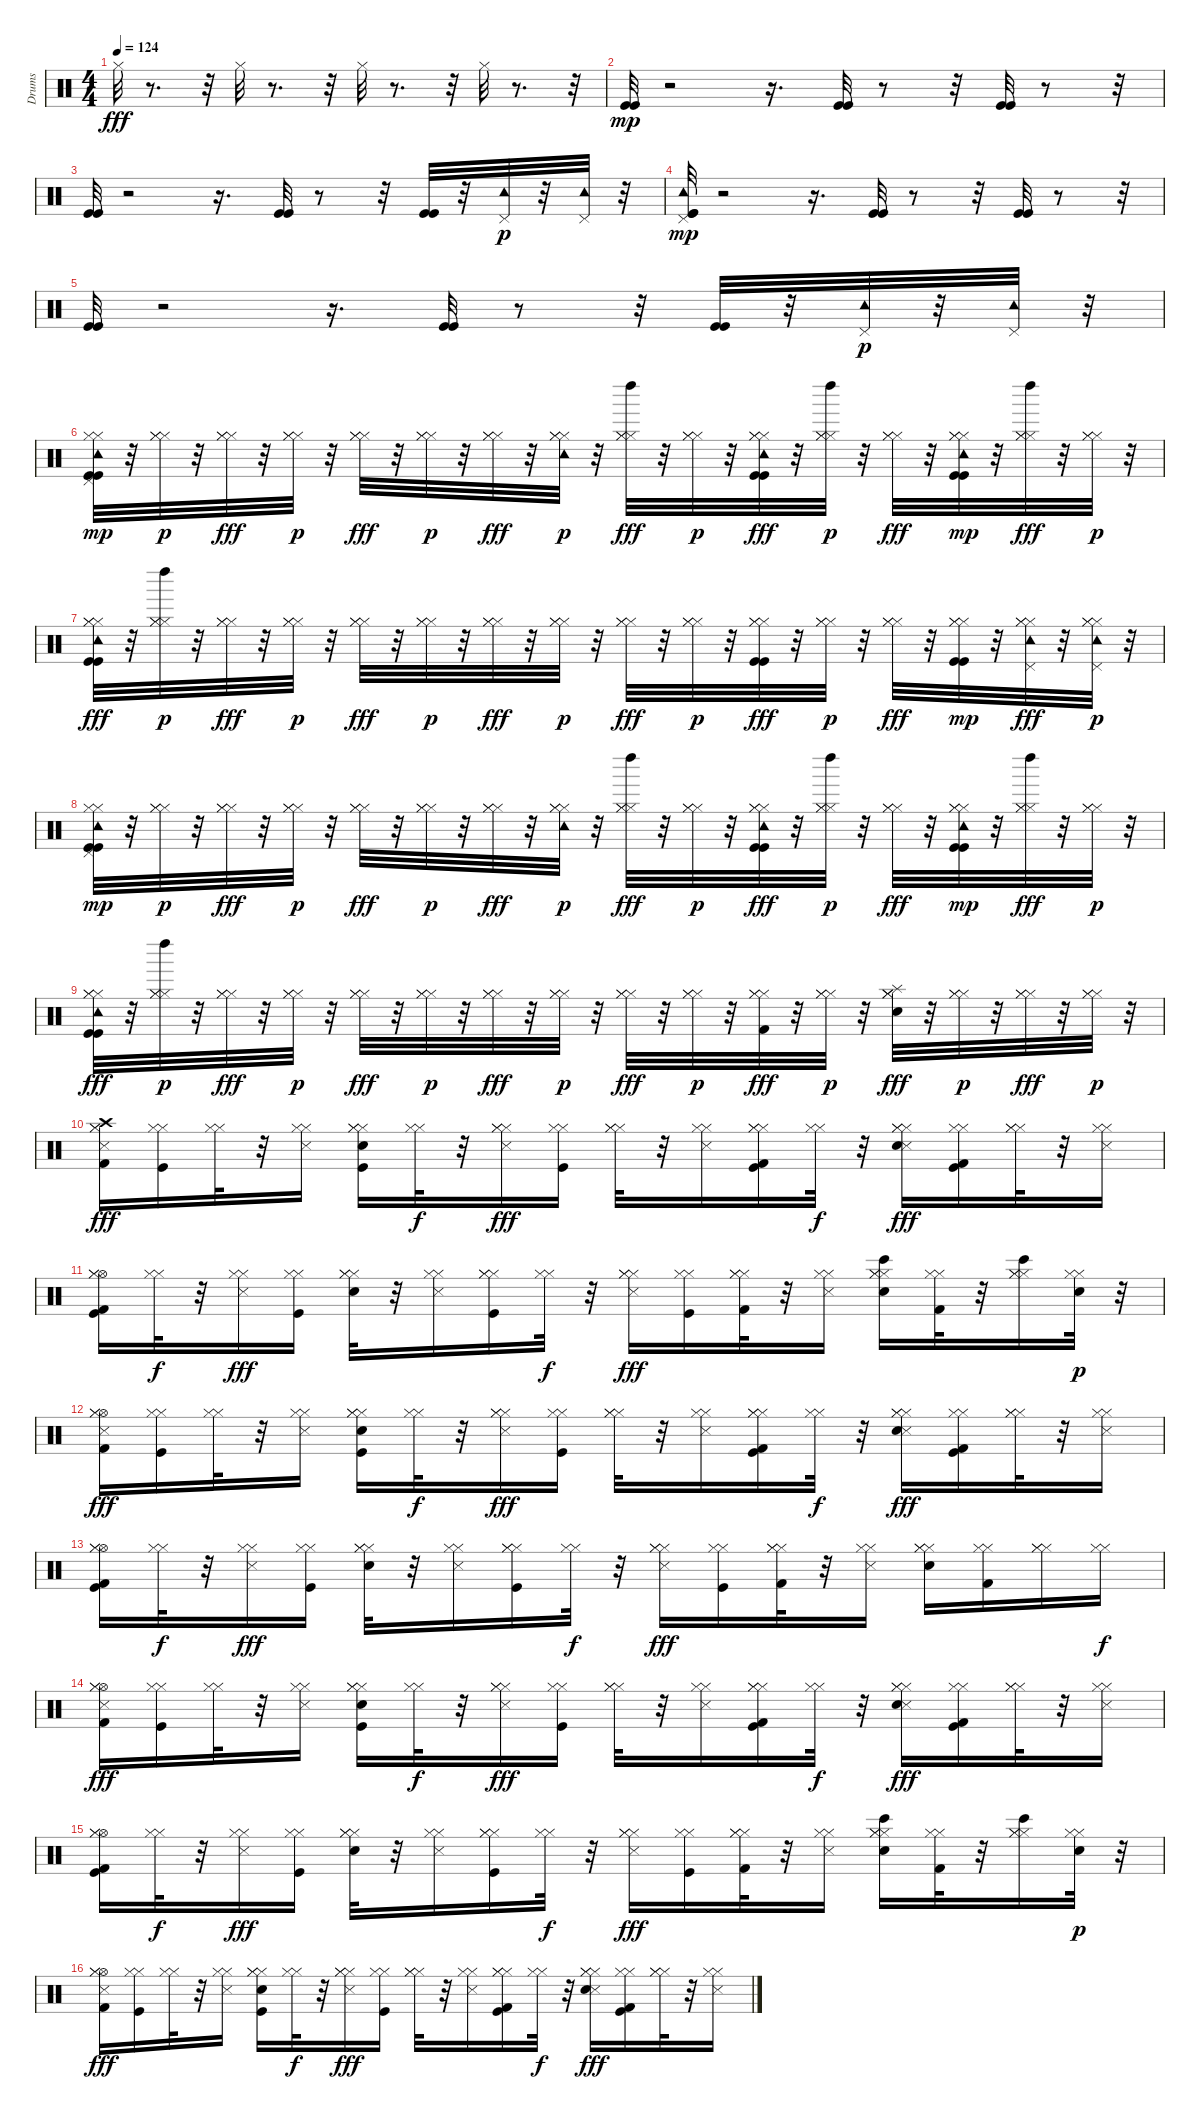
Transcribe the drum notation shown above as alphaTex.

\track ("Drums" "Drums") {instrument percussion}
\staff {score}
\articulation defaults
\ts (4 4)
\tempo 124
\clef neutral
\ks c "Hi-Hat (closed)".32{dy fff}
r.8{d} r.32 "Hi-Hat (closed)".32 r.8{d} r.32 "Hi-Hat (closed)".32 r.8{d} r.32 "Hi-Hat (closed)".32 r.8{d} r.32 |
("Kick (hit)" "Kick (hit)").32{dy mp} r.2 r.16{d} ("Kick (hit)" "Kick (hit)").32 r.8 r.32 ("Kick (hit)" "Kick (hit)").32 r.8 r.32 |
("Kick (hit)" "Kick (hit)").32 r.2 r.16{d} ("Kick (hit)" "Kick (hit)").32 r.8 r.32 ("Kick (hit)" "Kick (hit)").32 r.32 ("Pedal Hi-Hat (hit)" "Tambourine (hit)").32{dy p} r.32 ("Pedal Hi-Hat (hit)" "Tambourine (hit)").32 r.32 |
("Kick (hit)" "Pedal Hi-Hat (hit)" "Tambourine (hit)" "Kick (hit)").32{dy mp} r.2 r.16{d} ("Kick (hit)" "Kick (hit)").32 r.8 r.32 ("Kick (hit)" "Kick (hit)").32 r.8 r.32 |
("Kick (hit)" "Kick (hit)").32 r.2 r.16{d} ("Kick (hit)" "Kick (hit)").32 r.8 r.32 ("Kick (hit)" "Kick (hit)").32 r.32 ("Tambourine (hit)" "Pedal Hi-Hat (hit)").32{dy p} r.32 ("Tambourine (hit)" "Pedal Hi-Hat (hit)").32 r.32 |
("Kick (hit)" "Hi-Hat (closed)" "Tambourine (hit)" "Pedal Hi-Hat (hit)" "Hi-Hat (closed)" "Kick (hit)").32{dy mp} r.32 ("Hi-Hat (closed)" "Hi-Hat (closed)" "Hi-Hat (closed)").32{dy p} r.32 ("Hi-Hat (closed)" "Hi-Hat (closed)" "Hi-Hat (closed)").32{dy fff} r.32 ("Hi-Hat (closed)" "Hi-Hat (closed)" "Hi-Hat (closed)").32{dy p} r.32 ("Hi-Hat (closed)" "Hi-Hat (closed)" "Hi-Hat (closed)").32{dy fff} r.32 ("Hi-Hat (closed)" "Hi-Hat (closed)" "Hi-Hat (closed)").32{dy p} r.32 ("Hi-Hat (closed)" "Hi-Hat (closed)" "Hi-Hat (closed)").32{dy fff} r.32 ("Tambourine (hit)" "Hi-Hat (closed)" "Hi-Hat (closed)" "Hi-Hat (closed)").32{dy p} r.32 ("Left Maraca (hit)" "Hi-Hat (closed)" "Hi-Hat (closed)" "Hi-Hat (closed)").32{dy fff} r.32 ("Hi-Hat (closed)" "Hi-Hat (closed)" "Hi-Hat (closed)").32{dy p} r.32 ("Kick (hit)" "Tambourine (hit)" "Hi-Hat (closed)" "Hi-Hat (closed)" "Kick (hit)" "Hi-Hat (closed)").32{dy fff} r.32 ("Left Maraca (hit)" "Hi-Hat (closed)" "Hi-Hat (closed)" "Hi-Hat (closed)").32{dy p} r.32 ("Hi-Hat (closed)" "Hi-Hat (closed)" "Hi-Hat (closed)").32{dy fff} r.32 ("Kick (hit)" "Tambourine (hit)" "Hi-Hat (closed)" "Hi-Hat (closed)" "Kick (hit)" "Hi-Hat (closed)").32{dy mp} r.32 ("Left Maraca (hit)" "Hi-Hat (closed)" "Hi-Hat (closed)" "Hi-Hat (closed)").32{dy fff} r.32 ("Hi-Hat (closed)" "Hi-Hat (closed)" "Hi-Hat (closed)").32{dy p} r.32 |
("Kick (hit)" "Tambourine (hit)" "Hi-Hat (closed)" "Hi-Hat (closed)" "Kick (hit)" "Hi-Hat (closed)").32{dy fff} r.32 ("Left Maraca (hit)" "Hi-Hat (closed)" "Hi-Hat (closed)" "Hi-Hat (closed)").32{dy p} r.32 ("Hi-Hat (closed)" "Hi-Hat (closed)" "Hi-Hat (closed)").32{dy fff} r.32 ("Hi-Hat (closed)" "Hi-Hat (closed)" "Hi-Hat (closed)").32{dy p} r.32 ("Hi-Hat (closed)" "Hi-Hat (closed)" "Hi-Hat (closed)").32{dy fff} r.32 ("Hi-Hat (closed)" "Hi-Hat (closed)" "Hi-Hat (closed)").32{dy p} r.32 ("Hi-Hat (closed)" "Hi-Hat (closed)" "Hi-Hat (closed)").32{dy fff} r.32 ("Hi-Hat (closed)" "Hi-Hat (closed)" "Hi-Hat (closed)").32{dy p} r.32 ("Hi-Hat (closed)" "Hi-Hat (closed)" "Hi-Hat (closed)").32{dy fff} r.32 ("Hi-Hat (closed)" "Hi-Hat (closed)" "Hi-Hat (closed)").32{dy p} r.32 ("Kick (hit)" "Hi-Hat (closed)" "Hi-Hat (closed)" "Kick (hit)" "Hi-Hat (closed)").32{dy fff} r.32 ("Hi-Hat (closed)" "Hi-Hat (closed)" "Hi-Hat (closed)").32{dy p} r.32 ("Hi-Hat (closed)" "Hi-Hat (closed)" "Hi-Hat (closed)").32{dy fff} r.32 ("Kick (hit)" "Hi-Hat (closed)" "Hi-Hat (closed)" "Kick (hit)" "Hi-Hat (closed)").32{dy mp} r.32 ("Pedal Hi-Hat (hit)" "Tambourine (hit)" "Hi-Hat (closed)" "Hi-Hat (closed)" "Hi-Hat (closed)").32{dy fff} r.32 ("Pedal Hi-Hat (hit)" "Tambourine (hit)" "Hi-Hat (closed)" "Hi-Hat (closed)" "Hi-Hat (closed)").32{dy p} r.32 |
("Kick (hit)" "Pedal Hi-Hat (hit)" "Tambourine (hit)" "Hi-Hat (closed)" "Hi-Hat (closed)" "Kick (hit)").32{dy mp} r.32 ("Hi-Hat (closed)" "Hi-Hat (closed)" "Hi-Hat (closed)").32{dy p} r.32 ("Hi-Hat (closed)" "Hi-Hat (closed)" "Hi-Hat (closed)").32{dy fff} r.32 ("Hi-Hat (closed)" "Hi-Hat (closed)" "Hi-Hat (closed)").32{dy p} r.32 ("Hi-Hat (closed)" "Hi-Hat (closed)" "Hi-Hat (closed)").32{dy fff} r.32 ("Hi-Hat (closed)" "Hi-Hat (closed)" "Hi-Hat (closed)").32{dy p} r.32 ("Hi-Hat (closed)" "Hi-Hat (closed)" "Hi-Hat (closed)").32{dy fff} r.32 ("Tambourine (hit)" "Hi-Hat (closed)" "Hi-Hat (closed)" "Hi-Hat (closed)").32{dy p} r.32 ("Left Maraca (hit)" "Hi-Hat (closed)" "Hi-Hat (closed)" "Hi-Hat (closed)").32{dy fff} r.32 ("Hi-Hat (closed)" "Hi-Hat (closed)" "Hi-Hat (closed)").32{dy p} r.32 ("Kick (hit)" "Tambourine (hit)" "Hi-Hat (closed)" "Hi-Hat (closed)" "Kick (hit)" "Hi-Hat (closed)").32{dy fff} r.32 ("Left Maraca (hit)" "Hi-Hat (closed)" "Hi-Hat (closed)" "Hi-Hat (closed)").32{dy p} r.32 ("Hi-Hat (closed)" "Hi-Hat (closed)" "Hi-Hat (closed)").32{dy fff} r.32 ("Kick (hit)" "Tambourine (hit)" "Hi-Hat (closed)" "Hi-Hat (closed)" "Kick (hit)" "Hi-Hat (closed)").32{dy mp} r.32 ("Left Maraca (hit)" "Hi-Hat (closed)" "Hi-Hat (closed)" "Hi-Hat (closed)").32{dy fff} r.32 ("Hi-Hat (closed)" "Hi-Hat (closed)" "Hi-Hat (closed)").32{dy p} r.32 |
("Kick (hit)" "Tambourine (hit)" "Hi-Hat (closed)" "Hi-Hat (closed)" "Kick (hit)" "Hi-Hat (closed)").32{dy fff} r.32 ("Left Maraca (hit)" "Hi-Hat (closed)" "Hi-Hat (closed)" "Hi-Hat (closed)").32{dy p} r.32 ("Hi-Hat (closed)" "Hi-Hat (closed)" "Hi-Hat (closed)").32{dy fff} r.32 ("Hi-Hat (closed)" "Hi-Hat (closed)" "Hi-Hat (closed)").32{dy p} r.32 ("Hi-Hat (closed)" "Hi-Hat (closed)" "Hi-Hat (closed)").32{dy fff} r.32 ("Hi-Hat (closed)" "Hi-Hat (closed)" "Hi-Hat (closed)").32{dy p} r.32 ("Hi-Hat (closed)" "Hi-Hat (closed)" "Hi-Hat (closed)").32{dy fff} r.32 ("Hi-Hat (closed)" "Hi-Hat (closed)" "Hi-Hat (closed)").32{dy p} r.32 ("Hi-Hat (closed)" "Hi-Hat (closed)" "Hi-Hat (closed)").32{dy fff} r.32 ("Hi-Hat (closed)" "Hi-Hat (closed)" "Hi-Hat (closed)").32{dy p} r.32 ("Kick (hit) 2" "Hi-Hat (closed)" "Hi-Hat (closed)" "Hi-Hat (closed)").32{dy fff} r.32 ("Hi-Hat (closed)" "Hi-Hat (closed)" "Hi-Hat (closed)").32{dy p} r.32 ("Splash (hit)" "Electric Snare (hit)" "Hi-Hat (closed)" "Hi-Hat (closed)" "Hi-Hat (closed)").32{dy fff} r.32 ("Hi-Hat (closed)" "Hi-Hat (closed)" "Hi-Hat (closed)").32{dy p} r.32 ("Hi-Hat (closed)" "Hi-Hat (closed)" "Hi-Hat (closed)").32{dy fff} r.32 ("Hi-Hat (closed)" "Hi-Hat (closed)" "Hi-Hat (closed)").32{dy p} r.32 |
("Metronome (hit)" "Crash high (hit)" "Kick (hit) 2" "Hi-Hat (closed)" "Hi-Hat (closed)").16{dy fff} ("Kick (hit)" "Hi-Hat (closed)" "Hi-Hat (closed)").16 ("Hi-Hat (closed)" "Hi-Hat (closed)").32 r.32 ("Metronome (hit)" "Hi-Hat (closed)" "Hi-Hat (closed)").16 ("Kick (hit)" "Hi-Hat (closed)" "Electric Snare (hit)" "Hi-Hat (closed)" "Hi-Hat (closed)").16 ("Hi-Hat (closed)" "Hi-Hat (closed)").32{dy f} r.32 ("Metronome (hit)" "Hi-Hat (closed)" "Hi-Hat (closed)" "Hi-Hat (closed)").16{dy fff} ("Kick (hit)" "Hi-Hat (closed)" "Hi-Hat (closed)").16 ("Hi-Hat (closed)" "Hi-Hat (closed)" "Hi-Hat (closed)").32 r.32 ("Metronome (hit)" "Hi-Hat (closed)" "Hi-Hat (closed)").16 ("Kick (hit)" "Hi-Hat (closed)" "Kick (hit) 2" "Hi-Hat (closed)" "Hi-Hat (closed)").16 ("Hi-Hat (closed)" "Hi-Hat (closed)").32{dy f} r.32 ("Metronome (hit)" "Hi-Hat (closed)" "Electric Snare (hit)" "Hi-Hat (closed)" "Hi-Hat (closed)").16{dy fff} ("Kick (hit)" "Kick (hit) 2" "Hi-Hat (closed)" "Hi-Hat (closed)").16 ("Hi-Hat (closed)" "Hi-Hat (closed)" "Hi-Hat (closed)").32 r.32 ("Metronome (hit)" "Hi-Hat (closed)" "Hi-Hat (closed)").16 |
("Kick (hit)" "Hi-Hat (open)" "Kick (hit) 2" "Hi-Hat (closed)" "Hi-Hat (closed)").16 ("Hi-Hat (closed)" "Hi-Hat (closed)").32{dy f} r.32 ("Metronome (hit)" "Hi-Hat (closed)" "Hi-Hat (closed)").16{dy fff} ("Kick (hit)" "Hi-Hat (closed)" "Hi-Hat (closed)").16 ("Electric Snare (hit)" "Hi-Hat (closed)" "Hi-Hat (closed)" "Hi-Hat (closed)").32 r.32 ("Metronome (hit)" "Hi-Hat (closed)" "Hi-Hat (closed)").16 ("Kick (hit)" "Hi-Hat (closed)" "Hi-Hat (closed)" "Hi-Hat (closed)").16 ("Hi-Hat (closed)" "Hi-Hat (closed)").32{dy f} r.32 ("Metronome (hit)" "Hi-Hat (closed)" "Hi-Hat (closed)" "Hi-Hat (closed)").16{dy fff} ("Kick (hit)" "Hi-Hat (closed)" "Hi-Hat (closed)").16 ("Hi-Hat (closed)" "Kick (hit) 2" "Hi-Hat (closed)" "Hi-Hat (closed)").32 r.32 ("Metronome (hit)" "Hi-Hat (closed)" "Hi-Hat (closed)").16 ("Bongo High (hit)" "Electric Snare (hit)" "Hi-Hat (closed)" "Hi-Hat (closed)" "Hi-Hat (closed)").16 ("Kick (hit) 2" "Hi-Hat (closed)" "Hi-Hat (closed)").32 r.32 ("Bongo High (hit)" "Hi-Hat (closed)" "Hi-Hat (closed)" "Hi-Hat (closed)").16 ("Hi-Hat (closed)" "Hi-Hat (closed)" "Electric Snare (hit)").32{dy p} r.32 |
("Metronome (hit)" "Kick (hit) 2" "Hi-Hat (open)" "Hi-Hat (closed)" "Hi-Hat (closed)").16{dy fff} ("Kick (hit)" "Hi-Hat (closed)" "Hi-Hat (closed)").16 ("Hi-Hat (closed)" "Hi-Hat (closed)").32 r.32 ("Metronome (hit)" "Hi-Hat (closed)" "Hi-Hat (closed)").16 ("Kick (hit)" "Electric Snare (hit)" "Hi-Hat (closed)" "Hi-Hat (closed)" "Hi-Hat (closed)").16 ("Hi-Hat (closed)" "Hi-Hat (closed)").32{dy f} r.32 ("Metronome (hit)" "Hi-Hat (closed)" "Hi-Hat (closed)" "Hi-Hat (closed)").16{dy fff} ("Kick (hit)" "Hi-Hat (closed)" "Hi-Hat (closed)").16 ("Hi-Hat (closed)" "Hi-Hat (closed)" "Hi-Hat (closed)").32 r.32 ("Metronome (hit)" "Hi-Hat (closed)" "Hi-Hat (closed)").16 ("Kick (hit)" "Kick (hit) 2" "Hi-Hat (closed)" "Hi-Hat (closed)" "Hi-Hat (closed)").16 ("Hi-Hat (closed)" "Hi-Hat (closed)").32{dy f} r.32 ("Metronome (hit)" "Electric Snare (hit)" "Hi-Hat (closed)" "Hi-Hat (closed)" "Hi-Hat (closed)").16{dy fff} ("Kick (hit)" "Kick (hit) 2" "Hi-Hat (closed)" "Hi-Hat (closed)").16 ("Hi-Hat (closed)" "Hi-Hat (closed)" "Hi-Hat (closed)").32 r.32 ("Metronome (hit)" "Hi-Hat (closed)" "Hi-Hat (closed)").16 |
("Kick (hit)" "Kick (hit) 2" "Hi-Hat (open)" "Hi-Hat (closed)" "Hi-Hat (closed)").16 ("Hi-Hat (closed)" "Hi-Hat (closed)").32{dy f} r.32 ("Metronome (hit)" "Hi-Hat (closed)" "Hi-Hat (closed)").16{dy fff} ("Kick (hit)" "Hi-Hat (closed)" "Hi-Hat (closed)").16 ("Hi-Hat (closed)" "Electric Snare (hit)" "Hi-Hat (closed)" "Hi-Hat (closed)").32 r.32 ("Metronome (hit)" "Hi-Hat (closed)" "Hi-Hat (closed)").16 ("Kick (hit)" "Hi-Hat (closed)" "Hi-Hat (closed)" "Hi-Hat (closed)").16 ("Hi-Hat (closed)" "Hi-Hat (closed)").32{dy f} r.32 ("Metronome (hit)" "Hi-Hat (closed)" "Hi-Hat (closed)" "Hi-Hat (closed)").16{dy fff} ("Kick (hit)" "Hi-Hat (closed)" "Hi-Hat (closed)").16 ("Kick (hit) 2" "Hi-Hat (closed)" "Hi-Hat (closed)" "Hi-Hat (closed)").32 r.32 ("Metronome (hit)" "Hi-Hat (closed)" "Hi-Hat (closed)").16 ("Hi-Hat (closed)" "Electric Snare (hit)" "Hi-Hat (closed)" "Hi-Hat (closed)").16 ("Kick (hit) 2" "Hi-Hat (closed)" "Hi-Hat (closed)").16 ("Hi-Hat (closed)" "Hi-Hat (closed)" "Hi-Hat (closed)").16 ("Hi-Hat (closed)" "Hi-Hat (closed)").16{dy f} |
("Metronome (hit)" "Kick (hit) 2" "Hi-Hat (open)" "Hi-Hat (closed)" "Hi-Hat (closed)").16{dy fff} ("Kick (hit)" "Hi-Hat (closed)" "Hi-Hat (closed)").16 ("Hi-Hat (closed)" "Hi-Hat (closed)").32 r.32 ("Metronome (hit)" "Hi-Hat (closed)" "Hi-Hat (closed)").16 ("Kick (hit)" "Hi-Hat (closed)" "Electric Snare (hit)" "Hi-Hat (closed)" "Hi-Hat (closed)").16 ("Hi-Hat (closed)" "Hi-Hat (closed)").32{dy f} r.32 ("Metronome (hit)" "Hi-Hat (closed)" "Hi-Hat (closed)" "Hi-Hat (closed)").16{dy fff} ("Kick (hit)" "Hi-Hat (closed)" "Hi-Hat (closed)").16 ("Hi-Hat (closed)" "Hi-Hat (closed)" "Hi-Hat (closed)").32 r.32 ("Metronome (hit)" "Hi-Hat (closed)" "Hi-Hat (closed)").16 ("Kick (hit)" "Hi-Hat (closed)" "Kick (hit) 2" "Hi-Hat (closed)" "Hi-Hat (closed)").16 ("Hi-Hat (closed)" "Hi-Hat (closed)").32{dy f} r.32 ("Metronome (hit)" "Hi-Hat (closed)" "Electric Snare (hit)" "Hi-Hat (closed)" "Hi-Hat (closed)").16{dy fff} ("Kick (hit)" "Kick (hit) 2" "Hi-Hat (closed)" "Hi-Hat (closed)").16 ("Hi-Hat (closed)" "Hi-Hat (closed)" "Hi-Hat (closed)").32 r.32 ("Metronome (hit)" "Hi-Hat (closed)" "Hi-Hat (closed)").16 |
("Kick (hit)" "Hi-Hat (open)" "Kick (hit) 2" "Hi-Hat (closed)" "Hi-Hat (closed)").16 ("Hi-Hat (closed)" "Hi-Hat (closed)").32{dy f} r.32 ("Metronome (hit)" "Hi-Hat (closed)" "Hi-Hat (closed)").16{dy fff} ("Kick (hit)" "Hi-Hat (closed)" "Hi-Hat (closed)").16 ("Electric Snare (hit)" "Hi-Hat (closed)" "Hi-Hat (closed)" "Hi-Hat (closed)").32 r.32 ("Metronome (hit)" "Hi-Hat (closed)" "Hi-Hat (closed)").16 ("Kick (hit)" "Hi-Hat (closed)" "Hi-Hat (closed)" "Hi-Hat (closed)").16 ("Hi-Hat (closed)" "Hi-Hat (closed)").32{dy f} r.32 ("Metronome (hit)" "Hi-Hat (closed)" "Hi-Hat (closed)" "Hi-Hat (closed)").16{dy fff} ("Kick (hit)" "Hi-Hat (closed)" "Hi-Hat (closed)").16 ("Hi-Hat (closed)" "Kick (hit) 2" "Hi-Hat (closed)" "Hi-Hat (closed)").32 r.32 ("Metronome (hit)" "Hi-Hat (closed)" "Hi-Hat (closed)").16 ("Bongo High (hit)" "Electric Snare (hit)" "Hi-Hat (closed)" "Hi-Hat (closed)" "Hi-Hat (closed)").16 ("Kick (hit) 2" "Hi-Hat (closed)" "Hi-Hat (closed)").32 r.32 ("Bongo High (hit)" "Hi-Hat (closed)" "Hi-Hat (closed)" "Hi-Hat (closed)").16 ("Hi-Hat (closed)" "Hi-Hat (closed)" "Electric Snare (hit)").32{dy p} r.32 |
("Metronome (hit)" "Kick (hit) 2" "Hi-Hat (open)" "Hi-Hat (closed)" "Hi-Hat (closed)").16{dy fff} ("Kick (hit)" "Hi-Hat (closed)" "Hi-Hat (closed)").16 ("Hi-Hat (closed)" "Hi-Hat (closed)").32 r.32 ("Metronome (hit)" "Hi-Hat (closed)" "Hi-Hat (closed)").16 ("Kick (hit)" "Electric Snare (hit)" "Hi-Hat (closed)" "Hi-Hat (closed)" "Hi-Hat (closed)").16 ("Hi-Hat (closed)" "Hi-Hat (closed)").32{dy f} r.32 ("Metronome (hit)" "Hi-Hat (closed)" "Hi-Hat (closed)" "Hi-Hat (closed)").16{dy fff} ("Kick (hit)" "Hi-Hat (closed)" "Hi-Hat (closed)").16 ("Hi-Hat (closed)" "Hi-Hat (closed)" "Hi-Hat (closed)").32 r.32 ("Metronome (hit)" "Hi-Hat (closed)" "Hi-Hat (closed)").16 ("Kick (hit)" "Kick (hit) 2" "Hi-Hat (closed)" "Hi-Hat (closed)" "Hi-Hat (closed)").16 ("Hi-Hat (closed)" "Hi-Hat (closed)").32{dy f} r.32 ("Metronome (hit)" "Electric Snare (hit)" "Hi-Hat (closed)" "Hi-Hat (closed)" "Hi-Hat (closed)").16{dy fff} ("Kick (hit)" "Kick (hit) 2" "Hi-Hat (closed)" "Hi-Hat (closed)").16 ("Hi-Hat (closed)" "Hi-Hat (closed)" "Hi-Hat (closed)").32 r.32 ("Metronome (hit)" "Hi-Hat (closed)" "Hi-Hat (closed)").16
